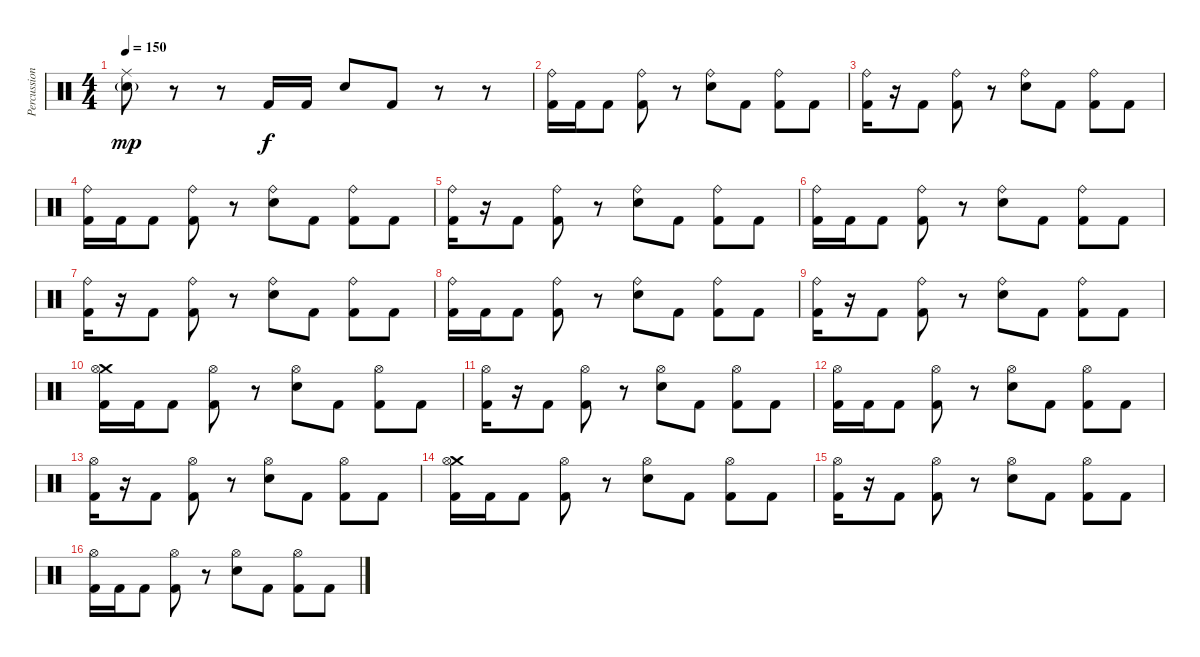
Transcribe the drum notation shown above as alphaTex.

\track ("Percussion" "Percussion") {instrument percussion}
\staff {score}
\articulation defaults
\ts (4 4)
\tempo 150
\clef neutral
\ks c
("Ride (middle)" "Electric Snare (hit)"{g}).8{dy mp} r.8 r.8 "Kick (hit) 2".16{dy f} "Kick (hit) 2".16 "Electric Snare (hit)".8 "Kick (hit) 2".8 r.8 r.8 |
("Ride (bell)" "Kick (hit) 2").16 "Kick (hit) 2".16 "Kick (hit) 2".8 ("Ride (bell)" "Kick (hit) 2").8 r.8 ("Ride (bell)" "Electric Snare (hit)").8 "Kick (hit) 2".8 ("Ride (bell)" "Kick (hit) 2").8 "Kick (hit) 2".8 |
("Ride (bell)" "Kick (hit) 2").16 r.16 "Kick (hit) 2".8 ("Ride (bell)" "Kick (hit) 2").8 r.8 ("Ride (bell)" "Electric Snare (hit)").8 "Kick (hit) 2".8 ("Ride (bell)" "Kick (hit) 2").8 "Kick (hit) 2".8 |
("Ride (bell)" "Kick (hit) 2").16 "Kick (hit) 2".16 "Kick (hit) 2".8 ("Ride (bell)" "Kick (hit) 2").8 r.8 ("Ride (bell)" "Electric Snare (hit)").8 "Kick (hit) 2".8 ("Ride (bell)" "Kick (hit) 2").8 "Kick (hit) 2".8 |
("Ride (bell)" "Kick (hit) 2").16 r.16 "Kick (hit) 2".8 ("Ride (bell)" "Kick (hit) 2").8 r.8 ("Ride (bell)" "Electric Snare (hit)").8 "Kick (hit) 2".8 ("Ride (bell)" "Kick (hit) 2").8 "Kick (hit) 2".8 |
("Ride (bell)" "Kick (hit) 2").16 "Kick (hit) 2".16 "Kick (hit) 2".8 ("Ride (bell)" "Kick (hit) 2").8 r.8 ("Ride (bell)" "Electric Snare (hit)").8 "Kick (hit) 2".8 ("Ride (bell)" "Kick (hit) 2").8 "Kick (hit) 2".8 |
("Ride (bell)" "Kick (hit) 2").16 r.16 "Kick (hit) 2".8 ("Ride (bell)" "Kick (hit) 2").8 r.8 ("Ride (bell)" "Electric Snare (hit)").8 "Kick (hit) 2".8 ("Ride (bell)" "Kick (hit) 2").8 "Kick (hit) 2".8 |
("Ride (bell)" "Kick (hit) 2").16 "Kick (hit) 2".16 "Kick (hit) 2".8 ("Ride (bell)" "Kick (hit) 2").8 r.8 ("Ride (bell)" "Electric Snare (hit)").8 "Kick (hit) 2".8 ("Ride (bell)" "Kick (hit) 2").8 "Kick (hit) 2".8 |
("Ride (bell)" "Kick (hit) 2").16 r.16 "Kick (hit) 2".8 ("Ride (bell)" "Kick (hit) 2").8 r.8 ("Ride (bell)" "Electric Snare (hit)").8 "Kick (hit) 2".8 ("Ride (bell)" "Kick (hit) 2").8 "Kick (hit) 2".8 |
("Crash medium (hit)" "Hi-Hat (open)" "Kick (hit) 2").16 "Kick (hit) 2".16 "Kick (hit) 2".8 ("Hi-Hat (open)" "Kick (hit) 2").8 r.8 ("Hi-Hat (open)" "Electric Snare (hit)").8 "Kick (hit) 2".8 ("Hi-Hat (open)" "Kick (hit) 2").8 "Kick (hit) 2".8 |
("Hi-Hat (open)" "Kick (hit) 2").16 r.16 "Kick (hit) 2".8 ("Hi-Hat (open)" "Kick (hit) 2").8 r.8 ("Hi-Hat (open)" "Electric Snare (hit)").8 "Kick (hit) 2".8 ("Hi-Hat (open)" "Kick (hit) 2").8 "Kick (hit) 2".8 |
("Hi-Hat (open)" "Kick (hit) 2").16 "Kick (hit) 2".16 "Kick (hit) 2".8 ("Hi-Hat (open)" "Kick (hit) 2").8 r.8 ("Hi-Hat (open)" "Electric Snare (hit)").8 "Kick (hit) 2".8 ("Hi-Hat (open)" "Kick (hit) 2").8 "Kick (hit) 2".8 |
("Hi-Hat (open)" "Kick (hit) 2").16 r.16 "Kick (hit) 2".8 ("Hi-Hat (open)" "Kick (hit) 2").8 r.8 ("Hi-Hat (open)" "Electric Snare (hit)").8 "Kick (hit) 2".8 ("Hi-Hat (open)" "Kick (hit) 2").8 "Kick (hit) 2".8 |
("Crash medium (hit)" "Hi-Hat (open)" "Kick (hit) 2").16 "Kick (hit) 2".16 "Kick (hit) 2".8 ("Hi-Hat (open)" "Kick (hit) 2").8 r.8 ("Hi-Hat (open)" "Electric Snare (hit)").8 "Kick (hit) 2".8 ("Hi-Hat (open)" "Kick (hit) 2").8 "Kick (hit) 2".8 |
("Hi-Hat (open)" "Kick (hit) 2").16 r.16 "Kick (hit) 2".8 ("Hi-Hat (open)" "Kick (hit) 2").8 r.8 ("Hi-Hat (open)" "Electric Snare (hit)").8 "Kick (hit) 2".8 ("Hi-Hat (open)" "Kick (hit) 2").8 "Kick (hit) 2".8 |
("Hi-Hat (open)" "Kick (hit) 2").16 "Kick (hit) 2".16 "Kick (hit) 2".8 ("Hi-Hat (open)" "Kick (hit) 2").8 r.8 ("Hi-Hat (open)" "Electric Snare (hit)").8 "Kick (hit) 2".8 ("Hi-Hat (open)" "Kick (hit) 2").8 "Kick (hit) 2".8
